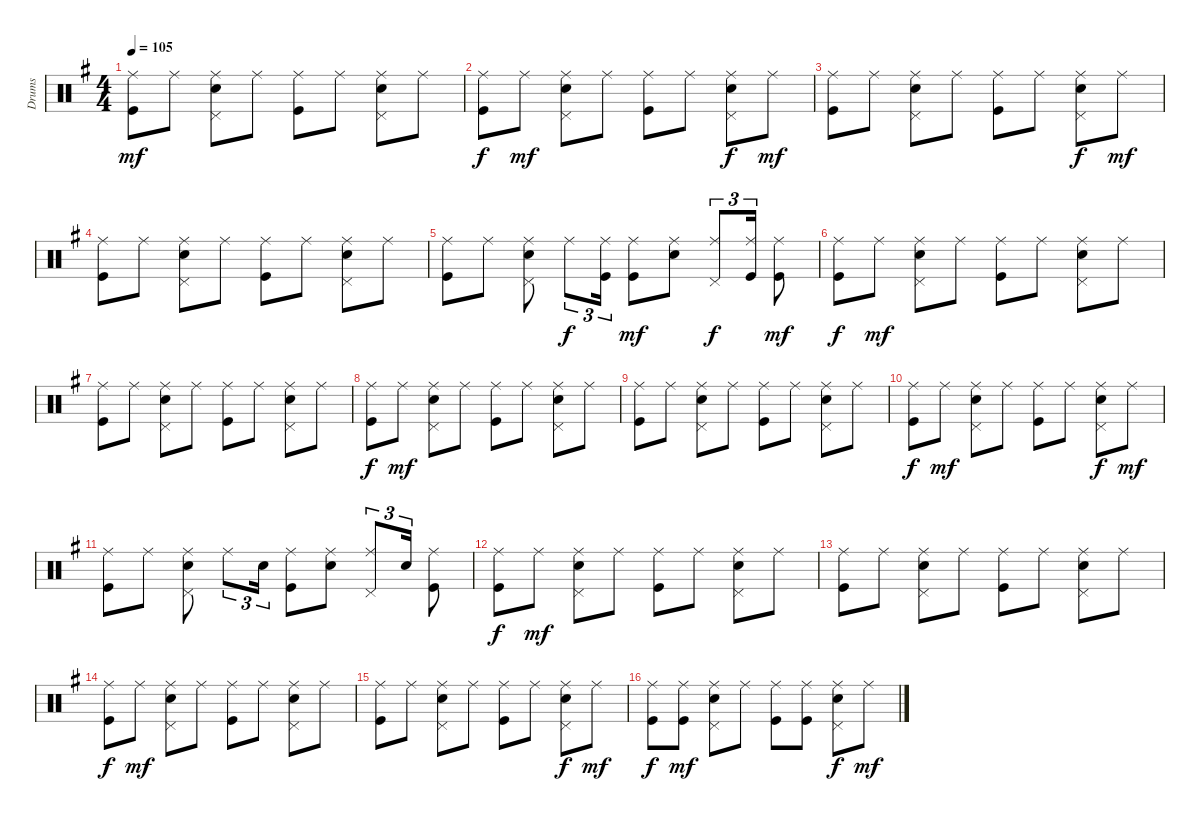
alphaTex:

\track ("Drums" "Drums") {instrument percussion}
\staff {score}
\articulation defaults
\ts (4 4)
\tempo 105
\clef neutral
\ks eminor
("Ride (middle)" "Kick (hit)").8{dy mf} "Ride (middle)".8 ("Ride (middle)" "Pedal Hi-Hat (hit)" "Snare (hit) 2").8 "Ride (middle)".8 ("Ride (middle)" "Kick (hit)").8 "Ride (middle)".8 ("Ride (middle)" "Pedal Hi-Hat (hit)" "Snare (hit) 2").8 "Ride (middle)".8 |
("Ride (middle)" "Kick (hit)").8{dy f} "Ride (middle)".8{dy mf} ("Ride (middle)" "Pedal Hi-Hat (hit)" "Snare (hit) 2").8 "Ride (middle)".8 ("Ride (middle)" "Kick (hit)").8 "Ride (middle)".8 ("Ride (middle)" "Pedal Hi-Hat (hit)" "Snare (hit) 2").8{dy f} "Ride (middle)".8{dy mf} |
("Ride (middle)" "Kick (hit)").8 "Ride (middle)".8 ("Ride (middle)" "Pedal Hi-Hat (hit)" "Snare (hit) 2").8 "Ride (middle)".8 ("Ride (middle)" "Kick (hit)").8 "Ride (middle)".8 ("Ride (middle)" "Pedal Hi-Hat (hit)" "Snare (hit) 2").8{dy f} "Ride (middle)".8{dy mf} |
("Ride (middle)" "Kick (hit)").8 "Ride (middle)".8 ("Ride (middle)" "Pedal Hi-Hat (hit)" "Snare (hit) 2").8 "Ride (middle)".8 ("Ride (middle)" "Kick (hit)").8 "Ride (middle)".8 ("Ride (middle)" "Pedal Hi-Hat (hit)" "Snare (hit) 2").8 "Ride (middle)".8 |
("Ride (middle)" "Kick (hit)").8 "Ride (middle)".8 ("Ride (middle)" "Pedal Hi-Hat (hit)" "Snare (hit) 2").8 "Ride (middle)".8{tu (3 2) dy f} ("Ride (middle)" "Kick (hit)").16{tu (3 2)} ("Ride (middle)" "Kick (hit)").8{dy mf} ("Ride (middle)" "Snare (hit) 2").8 ("Ride (middle)" "Pedal Hi-Hat (hit)").8{tu (3 2) dy f} ("Ride (middle)" "Kick (hit)").16{tu (3 2)} ("Ride (middle)" "Kick (hit)").8{dy mf} |
("Ride (middle)" "Kick (hit)").8{dy f} "Ride (middle)".8{dy mf} ("Ride (middle)" "Pedal Hi-Hat (hit)" "Snare (hit) 2").8 "Ride (middle)".8 ("Ride (middle)" "Kick (hit)").8 "Ride (middle)".8 ("Ride (middle)" "Pedal Hi-Hat (hit)" "Snare (hit) 2").8 "Ride (middle)".8 |
("Ride (middle)" "Kick (hit)").8 "Ride (middle)".8 ("Ride (middle)" "Pedal Hi-Hat (hit)" "Snare (hit) 2").8 "Ride (middle)".8 ("Ride (middle)" "Kick (hit)").8 "Ride (middle)".8 ("Ride (middle)" "Pedal Hi-Hat (hit)" "Snare (hit) 2").8 "Ride (middle)".8 |
("Ride (middle)" "Kick (hit)").8{dy f} "Ride (middle)".8{dy mf} ("Ride (middle)" "Pedal Hi-Hat (hit)" "Snare (hit) 2").8 "Ride (middle)".8 ("Ride (middle)" "Kick (hit)").8 "Ride (middle)".8 ("Ride (middle)" "Pedal Hi-Hat (hit)" "Snare (hit) 2").8 "Ride (middle)".8 |
("Ride (middle)" "Kick (hit)").8 "Ride (middle)".8 ("Ride (middle)" "Pedal Hi-Hat (hit)" "Snare (hit) 2").8 "Ride (middle)".8 ("Ride (middle)" "Kick (hit)").8 "Ride (middle)".8 ("Ride (middle)" "Pedal Hi-Hat (hit)" "Snare (hit) 2").8 "Ride (middle)".8 |
("Ride (middle)" "Kick (hit)").8{dy f} "Ride (middle)".8{dy mf} ("Ride (middle)" "Pedal Hi-Hat (hit)" "Snare (hit) 2").8 "Ride (middle)".8 ("Ride (middle)" "Kick (hit)").8 "Ride (middle)".8 ("Ride (middle)" "Pedal Hi-Hat (hit)" "Snare (hit) 2").8{dy f} "Ride (middle)".8{dy mf} |
("Ride (middle)" "Kick (hit)").8 "Ride (middle)".8 ("Ride (middle)" "Pedal Hi-Hat (hit)" "Snare (hit) 2").8 "Ride (middle)".8{tu (3 2)} "Snare (hit) 2".16{tu (3 2)} ("Ride (middle)" "Kick (hit)").8 ("Ride (middle)" "Snare (hit) 2").8 ("Ride (middle)" "Pedal Hi-Hat (hit)").8{tu (3 2)} "Snare (hit) 2".16{tu (3 2)} ("Ride (middle)" "Kick (hit)").8 |
("Ride (middle)" "Kick (hit)").8{dy f} "Ride (middle)".8{dy mf} ("Ride (middle)" "Pedal Hi-Hat (hit)" "Snare (hit) 2").8 "Ride (middle)".8 ("Ride (middle)" "Kick (hit)").8 "Ride (middle)".8 ("Ride (middle)" "Pedal Hi-Hat (hit)" "Snare (hit) 2").8 "Ride (middle)".8 |
("Ride (middle)" "Kick (hit)").8 "Ride (middle)".8 ("Ride (middle)" "Pedal Hi-Hat (hit)" "Snare (hit) 2").8 "Ride (middle)".8 ("Ride (middle)" "Kick (hit)").8 "Ride (middle)".8 ("Ride (middle)" "Pedal Hi-Hat (hit)" "Snare (hit) 2").8 "Ride (middle)".8 |
("Ride (middle)" "Kick (hit)").8{dy f} "Ride (middle)".8{dy mf} ("Ride (middle)" "Pedal Hi-Hat (hit)" "Snare (hit) 2").8 "Ride (middle)".8 ("Ride (middle)" "Kick (hit)").8 "Ride (middle)".8 ("Ride (middle)" "Pedal Hi-Hat (hit)" "Snare (hit) 2").8 "Ride (middle)".8 |
("Ride (middle)" "Kick (hit)").8 "Ride (middle)".8 ("Ride (middle)" "Pedal Hi-Hat (hit)" "Snare (hit) 2").8 "Ride (middle)".8 ("Ride (middle)" "Kick (hit)").8 "Ride (middle)".8 ("Ride (middle)" "Pedal Hi-Hat (hit)" "Snare (hit) 2").8{dy f} "Ride (middle)".8{dy mf} |
("Ride (middle)" "Kick (hit)").8{dy f} ("Ride (middle)" "Kick (hit)").8{dy mf} ("Ride (middle)" "Pedal Hi-Hat (hit)" "Snare (hit) 2").8 "Ride (middle)".8 ("Ride (middle)" "Kick (hit)").8 ("Ride (middle)" "Kick (hit)").8 ("Ride (middle)" "Pedal Hi-Hat (hit)" "Snare (hit) 2").8{dy f} "Ride (middle)".8{dy mf}
